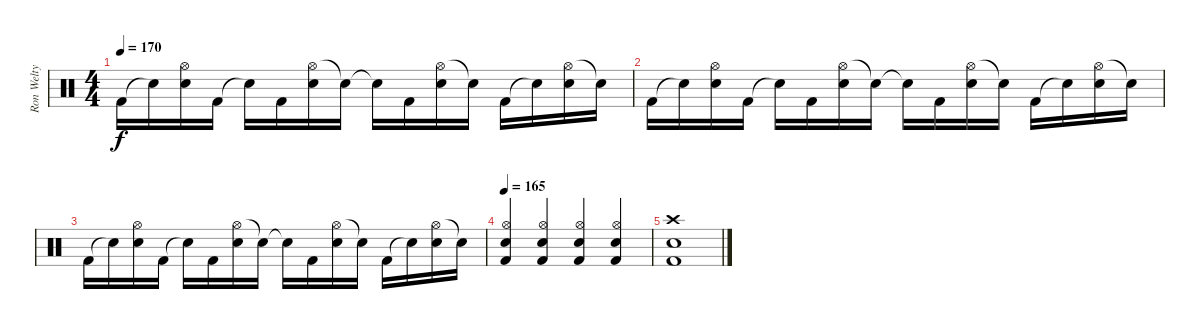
\track ("Ron Welty" "Ron Welty") {instrument percussion}
\staff {score}
\articulation defaults
\ts (4 4)
\tempo 170
\clef neutral
\ks c "Kick (hit) 2".16{dy f} "Snare (hit)"{t}.16
("Hi-Hat (open)" "Electric Snare (hit)").16 "Kick (hit) 2".16 "Snare (hit)"{t}.16 "Kick (hit) 2".16 ("Hi-Hat (open)" "Electric Snare (hit)").16 "Snare (hit)"{t}.16 "Snare (hit)"{t}.16 "Kick (hit) 2".16 ("Hi-Hat (open)" "Electric Snare (hit)").16 "Snare (hit)"{t}.16 "Kick (hit) 2".16 "Snare (hit)"{t}.16 ("Hi-Hat (open)" "Electric Snare (hit)").16 "Snare (hit)"{t}.16 |
"Kick (hit) 2".16 "Snare (hit)"{t}.16 ("Hi-Hat (open)" "Electric Snare (hit)").16 "Kick (hit) 2".16 "Snare (hit)"{t}.16 "Kick (hit) 2".16 ("Hi-Hat (open)" "Electric Snare (hit)").16 "Snare (hit)"{t}.16 "Snare (hit)"{t}.16 "Kick (hit) 2".16 ("Hi-Hat (open)" "Electric Snare (hit)").16 "Snare (hit)"{t}.16 "Kick (hit) 2".16 "Snare (hit)"{t}.16 ("Hi-Hat (open)" "Electric Snare (hit)").16 "Snare (hit)"{t}.16 |
"Kick (hit) 2".16 "Snare (hit)"{t}.16 ("Hi-Hat (open)" "Electric Snare (hit)").16 "Kick (hit) 2".16 "Snare (hit)"{t}.16 "Kick (hit) 2".16 ("Hi-Hat (open)" "Electric Snare (hit)").16 "Snare (hit)"{t}.16 "Snare (hit)"{t}.16 "Kick (hit) 2".16 ("Hi-Hat (open)" "Electric Snare (hit)").16 "Snare (hit)"{t}.16 "Kick (hit) 2".16 "Snare (hit)"{t}.16 ("Hi-Hat (open)" "Electric Snare (hit)").16 "Snare (hit)"{t}.16 |
\tempo 165
("Hi-Hat (open)" "Electric Snare (hit)" "Kick (hit) 2").4 ("Hi-Hat (open)" "Electric Snare (hit)" "Kick (hit) 2").4 ("Hi-Hat (open)" "Electric Snare (hit)" "Kick (hit) 2").4 ("Hi-Hat (open)" "Electric Snare (hit)" "Kick (hit) 2").4 |
("Crash high (hit)" "Electric Snare (hit)" "Kick (hit) 2").1
